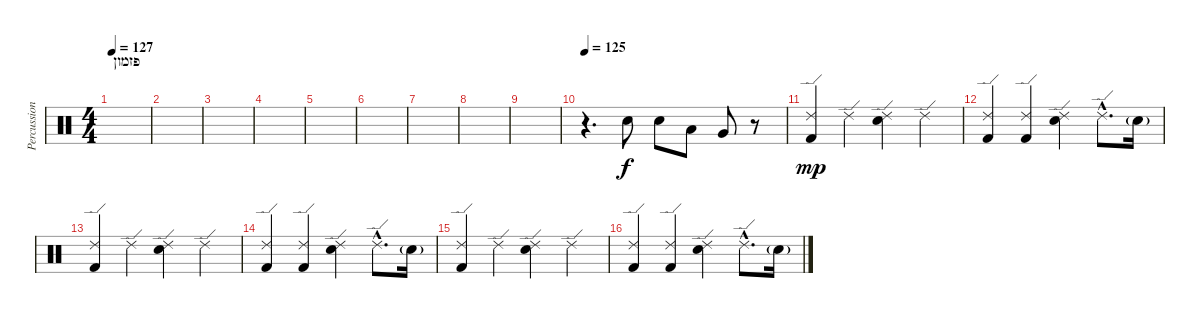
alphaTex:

\track ("Percussion - Or" "Percussion") {instrument percussion}
\staff {score}
\articulation defaults
\ts (4 4)
\section ("" "פזמון")
\tempo 127
\clef neutral
\ks c
|
|
|
|
|
|
|
|
|
\tempo 125
r.4{d} "Snare (hit) 2".8 "Snare (hit) 2".8 "Low Tom (hit)".8 "Very Low Tom (hit)".8 r.8 |
("Ride (edge) 2" "Kick (hit) 2").4{dy mp} "Ride (edge) 2".4 ("Ride (edge) 2" "Snare (hit) 2").4 "Ride (edge) 2".4 |
("Ride (edge) 2" "Kick (hit) 2").4 ("Ride (edge) 2" "Kick (hit) 2").4 ("Ride (edge) 2" "Snare (hit) 2").4 "Ride (edge) 2"{hac}.8{d} "Snare (hit) 2"{g}.16 |
("Ride (edge) 2" "Kick (hit) 2").4 "Ride (edge) 2".4 ("Ride (edge) 2" "Snare (hit) 2").4 "Ride (edge) 2".4 |
("Ride (edge) 2" "Kick (hit) 2").4 ("Ride (edge) 2" "Kick (hit) 2").4 ("Ride (edge) 2" "Snare (hit) 2").4 "Ride (edge) 2"{hac}.8{d} "Snare (hit) 2"{g}.16 |
("Ride (edge) 2" "Kick (hit) 2").4 "Ride (edge) 2".4 ("Ride (edge) 2" "Snare (hit) 2").4 "Ride (edge) 2".4 |
("Ride (edge) 2" "Kick (hit) 2").4 ("Ride (edge) 2" "Kick (hit) 2").4 ("Ride (edge) 2" "Snare (hit) 2").4 "Ride (edge) 2"{hac}.8{d} "Snare (hit) 2"{g}.16
